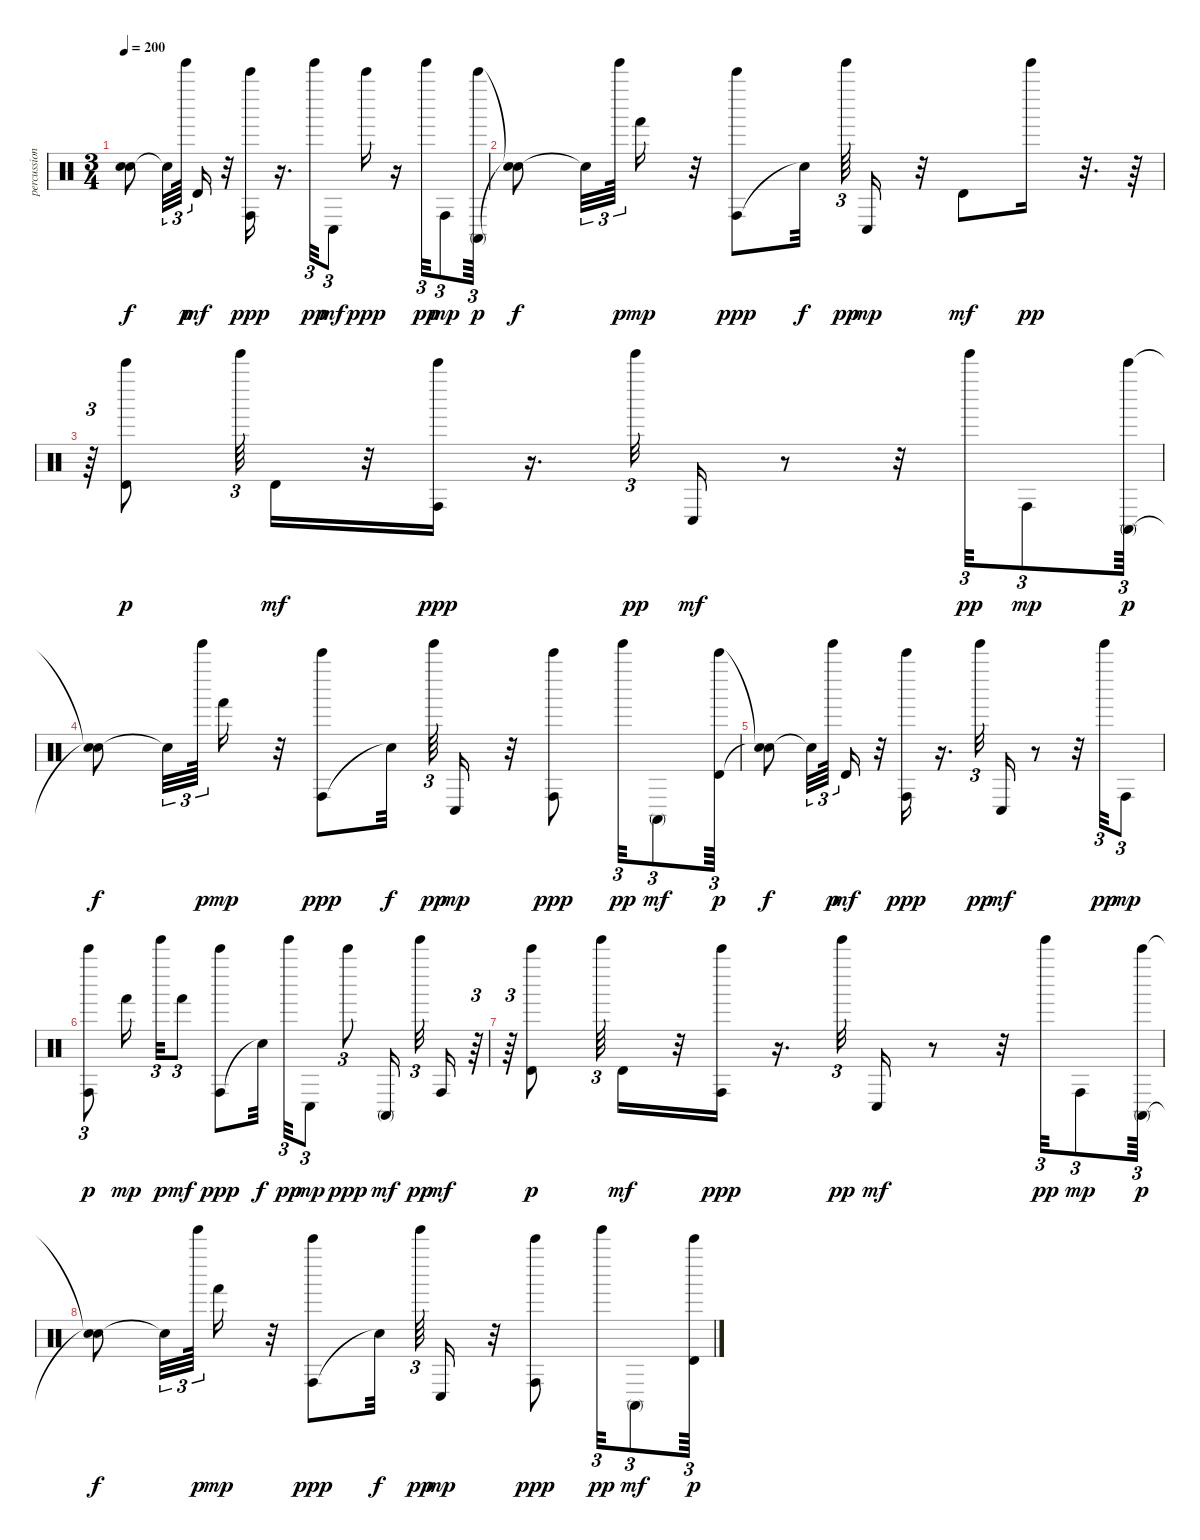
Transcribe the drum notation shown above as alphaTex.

\track ("percussion" "percussion") {instrument percussion}
\staff {score}
\articulation defaults
\ts (3 4)
\tempo 200
\clef neutral
\ks c
("Snare (hit)"{t} "Snare (hit)"{t}).8{dy f} "Snare (hit)"{t}.32{tu (3 2)} "Tinkle Bell (hit)".64{tu (3 2) dy p} "Timbale high (hit)".16{dy mf} r.32 ("Conga high (hit)" "Bell Tree (hit)").16{dy ppp} r.16{d} "Tinkle Bell (hit)".32{tu (3 2) dy pp} "Conga low (hit)".8{tu (3 2) dy mf} "Bell Tree (hit)".16{dy ppp} r.16 "Tinkle Bell (hit)".32{tu (3 2) dy pp} "Conga high (hit)".8{tu (3 2) dy mp} ("Conga high (mute)" "Bell Tree (hit)").64{tu (3 2) dy p} |
("Snare (hit)"{t} "Snare (hit)"{t}).8{dy f} "Snare (hit)"{t}.32{tu (3 2)} "Tinkle Bell (hit)".64{tu (3 2) dy p} "Hand (hit)".16{dy mp} r.32 ("Conga high (hit)" "Bell Tree (hit)").8{dy ppp} "Snare (hit)"{t}.32{dy f} "Tinkle Bell (hit)".64{tu (3 2) dy pp} "Conga low (hit)".16{dy mp} r.32 "Timbale high (hit)".8{dy mf} "Tinkle Bell (hit)".16{dy pp} r.32{d} r.64 |
r.64{tu (3 2)} ("Timbale high (hit)" "Bell Tree (hit)").8{dy p} "Tinkle Bell (hit)".64{tu (3 2)} "Timbale high (hit)".16{dy mf} r.32 ("Conga high (hit)" "Bell Tree (hit)").16{dy ppp} r.16{d} "Tinkle Bell (hit)".32{tu (3 2) dy pp} "Conga low (hit)".16{dy mf} r.8 r.32 "Tinkle Bell (hit)".32{tu (3 2) dy pp} "Conga high (hit)".8{tu (3 2) dy mp} ("Conga high (mute)" "Bell Tree (hit)").64{tu (3 2) dy p} |
("Snare (hit)"{t} "Snare (hit)"{t}).8{dy f} "Snare (hit)"{t}.32{tu (3 2)} "Tinkle Bell (hit)".64{tu (3 2) dy p} "Hand (hit)".16{dy mp} r.32 ("Conga high (hit)" "Bell Tree (hit)").8{dy ppp} "Snare (hit)"{t}.32{dy f} "Tinkle Bell (hit)".64{tu (3 2) dy pp} "Conga low (hit)".16{dy mp} r.32 ("Conga high (hit)" "Bell Tree (hit)").8{dy ppp} "Tinkle Bell (hit)".32{tu (3 2) dy pp} "Conga high (mute)".8{tu (3 2) dy mf} ("Timbale high (hit)" "Bell Tree (hit)").64{tu (3 2) dy p} |
("Snare (hit)"{t} "Snare (hit)"{t}).8{dy f} "Snare (hit)"{t}.32{tu (3 2)} "Tinkle Bell (hit)".64{tu (3 2) dy p} "Timbale high (hit)".16{dy mf} r.32 ("Conga high (hit)" "Bell Tree (hit)").16{dy ppp} r.16{d} "Tinkle Bell (hit)".32{tu (3 2) dy pp} "Conga low (hit)".16{dy mf} r.8 r.32 "Tinkle Bell (hit)".32{tu (3 2) dy pp} "Conga high (hit)".8{tu (3 2) dy mp} |
("Conga high (hit)" "Bell Tree (hit)").8{tu (3 2) dy p} "Hand (hit)".16{dy mp} "Tinkle Bell (hit)".32{tu (3 2) dy p} "Hand (hit)".8{tu (3 2) dy mf} ("Conga high (hit)" "Bell Tree (hit)").8{dy ppp} "Snare (hit)"{t}.32{dy f} "Tinkle Bell (hit)".32{tu (3 2) dy pp} "Conga low (hit)".8{tu (3 2) dy mp} "Bell Tree (hit)".8{tu (3 2) dy ppp} "Conga high (mute)".16{dy mf} "Tinkle Bell (hit)".32{tu (3 2) dy pp} "Conga high (hit)".16{dy mf} r.64{tu (3 2)} |
r.64{tu (3 2)} ("Timbale high (hit)" "Bell Tree (hit)").8{dy p} "Tinkle Bell (hit)".64{tu (3 2)} "Timbale high (hit)".16{dy mf} r.32 ("Conga high (hit)" "Bell Tree (hit)").16{dy ppp} r.16{d} "Tinkle Bell (hit)".32{tu (3 2) dy pp} "Conga low (hit)".16{dy mf} r.8 r.32 "Tinkle Bell (hit)".32{tu (3 2) dy pp} "Conga high (hit)".8{tu (3 2) dy mp} ("Conga high (mute)" "Bell Tree (hit)").64{tu (3 2) dy p} |
("Snare (hit)"{t} "Snare (hit)"{t}).8{dy f} "Snare (hit)"{t}.32{tu (3 2)} "Tinkle Bell (hit)".64{tu (3 2) dy p} "Hand (hit)".16{dy mp} r.32 ("Conga high (hit)" "Bell Tree (hit)").8{dy ppp} "Snare (hit)"{t}.32{dy f} "Tinkle Bell (hit)".64{tu (3 2) dy pp} "Conga low (hit)".16{dy mp} r.32 ("Conga high (hit)" "Bell Tree (hit)").8{dy ppp} "Tinkle Bell (hit)".32{tu (3 2) dy pp} "Conga high (mute)".8{tu (3 2) dy mf} ("Timbale high (hit)" "Bell Tree (hit)").64{tu (3 2) dy p}
